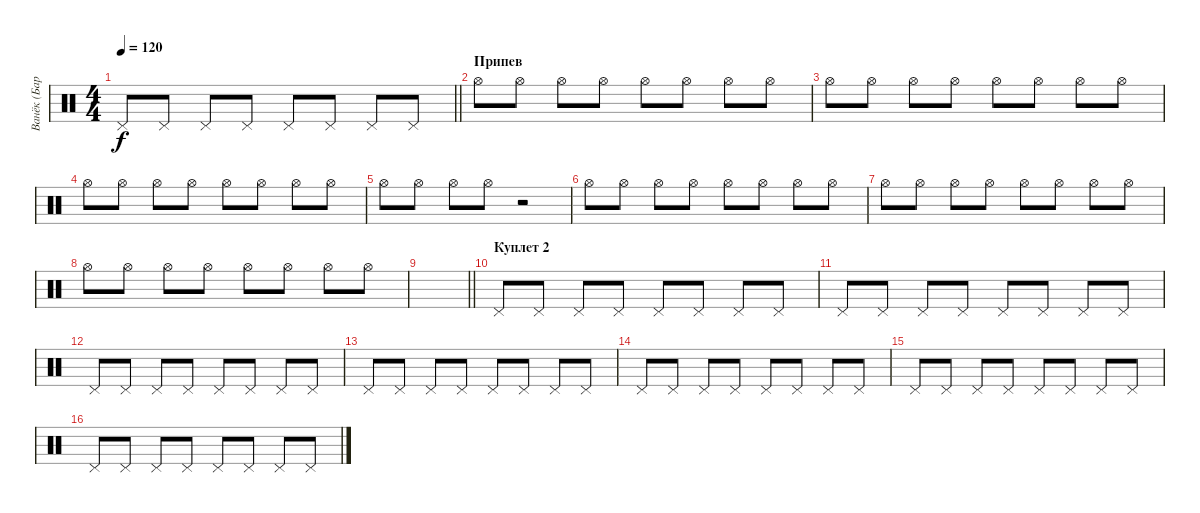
\track ("Ванёк (Барабанщик)" "Ванёк (Бар") {instrument percussion}
\staff {score}
\articulation defaults
\ts (4 4)
\tempo 120
\clef neutral
\barLineRight lightlight
\ks c "Pedal Hi-Hat (hit)".8{dy f} "Pedal Hi-Hat (hit)".8 "Pedal Hi-Hat (hit)".8 "Pedal Hi-Hat (hit)".8 "Pedal Hi-Hat (hit)".8 "Pedal Hi-Hat (hit)".8 "Pedal Hi-Hat (hit)".8 "Pedal Hi-Hat (hit)".8
|
\section ("" "Припев")
"Hi-Hat (open)".8 "Hi-Hat (open)".8 "Hi-Hat (open)".8 "Hi-Hat (open)".8 "Hi-Hat (open)".8 "Hi-Hat (open)".8 "Hi-Hat (open)".8 "Hi-Hat (open)".8 |
"Hi-Hat (open)".8 "Hi-Hat (open)".8 "Hi-Hat (open)".8 "Hi-Hat (open)".8 "Hi-Hat (open)".8 "Hi-Hat (open)".8 "Hi-Hat (open)".8 "Hi-Hat (open)".8 |
"Hi-Hat (open)".8 "Hi-Hat (open)".8 "Hi-Hat (open)".8 "Hi-Hat (open)".8 "Hi-Hat (open)".8 "Hi-Hat (open)".8 "Hi-Hat (open)".8 "Hi-Hat (open)".8 |
"Hi-Hat (open)".8 "Hi-Hat (open)".8 "Hi-Hat (open)".8 "Hi-Hat (open)".8 r.2 |
"Hi-Hat (open)".8 "Hi-Hat (open)".8 "Hi-Hat (open)".8 "Hi-Hat (open)".8 "Hi-Hat (open)".8 "Hi-Hat (open)".8 "Hi-Hat (open)".8 "Hi-Hat (open)".8 |
"Hi-Hat (open)".8 "Hi-Hat (open)".8 "Hi-Hat (open)".8 "Hi-Hat (open)".8 "Hi-Hat (open)".8 "Hi-Hat (open)".8 "Hi-Hat (open)".8 "Hi-Hat (open)".8 |
"Hi-Hat (open)".8 "Hi-Hat (open)".8 "Hi-Hat (open)".8 "Hi-Hat (open)".8 "Hi-Hat (open)".8 "Hi-Hat (open)".8 "Hi-Hat (open)".8 "Hi-Hat (open)".8 |
\barLineRight lightlight
|
\section ("" "Куплет 2")
"Pedal Hi-Hat (hit)".8 "Pedal Hi-Hat (hit)".8 "Pedal Hi-Hat (hit)".8 "Pedal Hi-Hat (hit)".8 "Pedal Hi-Hat (hit)".8 "Pedal Hi-Hat (hit)".8 "Pedal Hi-Hat (hit)".8 "Pedal Hi-Hat (hit)".8 |
"Pedal Hi-Hat (hit)".8 "Pedal Hi-Hat (hit)".8 "Pedal Hi-Hat (hit)".8 "Pedal Hi-Hat (hit)".8 "Pedal Hi-Hat (hit)".8 "Pedal Hi-Hat (hit)".8 "Pedal Hi-Hat (hit)".8 "Pedal Hi-Hat (hit)".8 |
"Pedal Hi-Hat (hit)".8 "Pedal Hi-Hat (hit)".8 "Pedal Hi-Hat (hit)".8 "Pedal Hi-Hat (hit)".8 "Pedal Hi-Hat (hit)".8 "Pedal Hi-Hat (hit)".8 "Pedal Hi-Hat (hit)".8 "Pedal Hi-Hat (hit)".8 |
"Pedal Hi-Hat (hit)".8 "Pedal Hi-Hat (hit)".8 "Pedal Hi-Hat (hit)".8 "Pedal Hi-Hat (hit)".8 "Pedal Hi-Hat (hit)".8 "Pedal Hi-Hat (hit)".8 "Pedal Hi-Hat (hit)".8 "Pedal Hi-Hat (hit)".8 |
"Pedal Hi-Hat (hit)".8 "Pedal Hi-Hat (hit)".8 "Pedal Hi-Hat (hit)".8 "Pedal Hi-Hat (hit)".8 "Pedal Hi-Hat (hit)".8 "Pedal Hi-Hat (hit)".8 "Pedal Hi-Hat (hit)".8 "Pedal Hi-Hat (hit)".8 |
"Pedal Hi-Hat (hit)".8 "Pedal Hi-Hat (hit)".8 "Pedal Hi-Hat (hit)".8 "Pedal Hi-Hat (hit)".8 "Pedal Hi-Hat (hit)".8 "Pedal Hi-Hat (hit)".8 "Pedal Hi-Hat (hit)".8 "Pedal Hi-Hat (hit)".8 |
"Pedal Hi-Hat (hit)".8 "Pedal Hi-Hat (hit)".8 "Pedal Hi-Hat (hit)".8 "Pedal Hi-Hat (hit)".8 "Pedal Hi-Hat (hit)".8 "Pedal Hi-Hat (hit)".8 "Pedal Hi-Hat (hit)".8 "Pedal Hi-Hat (hit)".8
